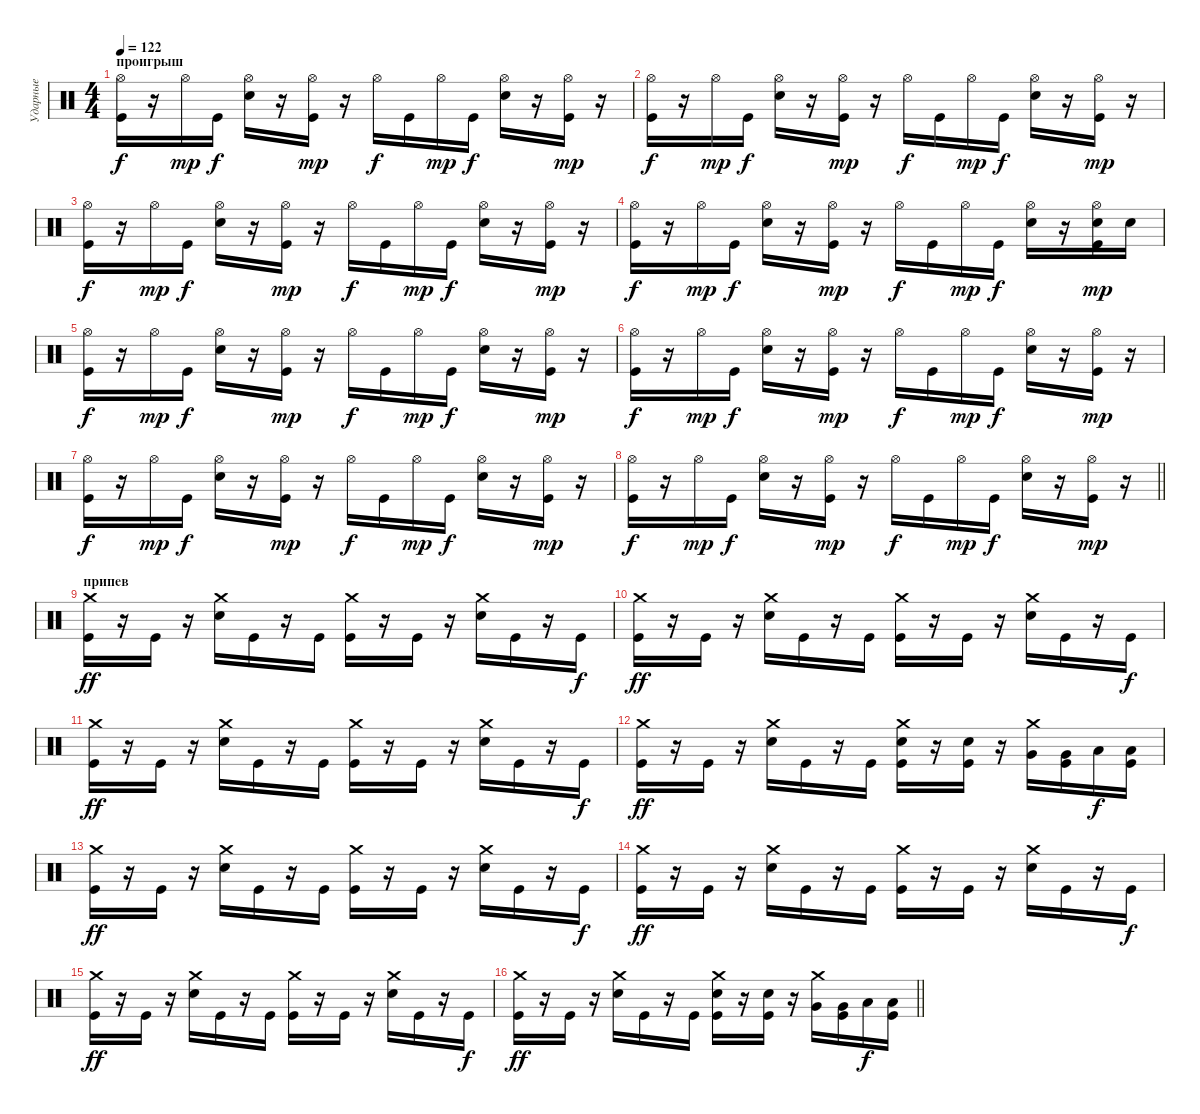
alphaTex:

\track ("Ударные" "Ударные") {instrument percussion}
\staff {score}
\articulation defaults
\ts (4 4)
\section ("" "проигрыш")
\tempo 122
\clef neutral
\ks c
("Hi-Hat (open)" "Kick (hit)").16{dy f} r.16 "Hi-Hat (open)".16{dy mp} "Kick (hit)".16{dy f} ("Hi-Hat (open)" "Electric Snare (hit)").16 r.16 ("Hi-Hat (open)" "Kick (hit)").16{dy mp} r.16 "Hi-Hat (open)".16{dy f} "Kick (hit)".16 "Hi-Hat (open)".16{dy mp} "Kick (hit)".16{dy f} ("Hi-Hat (open)" "Electric Snare (hit)").16 r.16 ("Hi-Hat (open)" "Kick (hit)").16{dy mp} r.16 |
("Hi-Hat (open)" "Kick (hit)").16{dy f} r.16 "Hi-Hat (open)".16{dy mp} "Kick (hit)".16{dy f} ("Hi-Hat (open)" "Electric Snare (hit)").16 r.16 ("Hi-Hat (open)" "Kick (hit)").16{dy mp} r.16 "Hi-Hat (open)".16{dy f} "Kick (hit)".16 "Hi-Hat (open)".16{dy mp} "Kick (hit)".16{dy f} ("Hi-Hat (open)" "Electric Snare (hit)").16 r.16 ("Hi-Hat (open)" "Kick (hit)").16{dy mp} r.16 |
("Hi-Hat (open)" "Kick (hit)").16{dy f} r.16 "Hi-Hat (open)".16{dy mp} "Kick (hit)".16{dy f} ("Hi-Hat (open)" "Electric Snare (hit)").16 r.16 ("Hi-Hat (open)" "Kick (hit)").16{dy mp} r.16 "Hi-Hat (open)".16{dy f} "Kick (hit)".16 "Hi-Hat (open)".16{dy mp} "Kick (hit)".16{dy f} ("Hi-Hat (open)" "Electric Snare (hit)").16 r.16 ("Hi-Hat (open)" "Kick (hit)").16{dy mp} r.16 |
("Hi-Hat (open)" "Kick (hit)").16{dy f} r.16 "Hi-Hat (open)".16{dy mp} "Kick (hit)".16{dy f} ("Hi-Hat (open)" "Electric Snare (hit)").16 r.16 ("Hi-Hat (open)" "Kick (hit)").16{dy mp} r.16 "Hi-Hat (open)".16{dy f} "Kick (hit)".16 "Hi-Hat (open)".16{dy mp} "Kick (hit)".16{dy f} ("Hi-Hat (open)" "Electric Snare (hit)").16 r.16 ("Hi-Hat (open)" "Electric Snare (hit)" "Kick (hit)").16{dy mp} "Electric Snare (hit)".16 |
("Hi-Hat (open)" "Kick (hit)").16{dy f} r.16 "Hi-Hat (open)".16{dy mp} "Kick (hit)".16{dy f} ("Hi-Hat (open)" "Electric Snare (hit)").16 r.16 ("Hi-Hat (open)" "Kick (hit)").16{dy mp} r.16 "Hi-Hat (open)".16{dy f} "Kick (hit)".16 "Hi-Hat (open)".16{dy mp} "Kick (hit)".16{dy f} ("Hi-Hat (open)" "Electric Snare (hit)").16 r.16 ("Hi-Hat (open)" "Kick (hit)").16{dy mp} r.16 |
("Hi-Hat (open)" "Kick (hit)").16{dy f} r.16 "Hi-Hat (open)".16{dy mp} "Kick (hit)".16{dy f} ("Hi-Hat (open)" "Electric Snare (hit)").16 r.16 ("Hi-Hat (open)" "Kick (hit)").16{dy mp} r.16 "Hi-Hat (open)".16{dy f} "Kick (hit)".16 "Hi-Hat (open)".16{dy mp} "Kick (hit)".16{dy f} ("Hi-Hat (open)" "Electric Snare (hit)").16 r.16 ("Hi-Hat (open)" "Kick (hit)").16{dy mp} r.16 |
("Hi-Hat (open)" "Kick (hit)").16{dy f} r.16 "Hi-Hat (open)".16{dy mp} "Kick (hit)".16{dy f} ("Hi-Hat (open)" "Electric Snare (hit)").16 r.16 ("Hi-Hat (open)" "Kick (hit)").16{dy mp} r.16 "Hi-Hat (open)".16{dy f} "Kick (hit)".16 "Hi-Hat (open)".16{dy mp} "Kick (hit)".16{dy f} ("Hi-Hat (open)" "Electric Snare (hit)").16 r.16 ("Hi-Hat (open)" "Kick (hit)").16{dy mp} r.16 |
\barLineRight lightlight
("Hi-Hat (open)" "Kick (hit)").16{dy f} r.16 "Hi-Hat (open)".16{dy mp} "Kick (hit)".16{dy f} ("Hi-Hat (open)" "Electric Snare (hit)").16 r.16 ("Hi-Hat (open)" "Kick (hit)").16{dy mp} r.16 "Hi-Hat (open)".16{dy f} "Kick (hit)".16 "Hi-Hat (open)".16{dy mp} "Kick (hit)".16{dy f} ("Hi-Hat (open)" "Electric Snare (hit)").16 r.16 ("Hi-Hat (open)" "Kick (hit)").16{dy mp} r.16 |
\section ("" "припев")
("Crash medium (hit)" "Kick (hit)").16{dy ff} r.16 "Kick (hit)".16 r.16 ("Crash medium (hit)" "Electric Snare (hit)").16 "Kick (hit)".16 r.16 "Kick (hit)".16 ("Crash medium (hit)" "Kick (hit)").16 r.16 "Kick (hit)".16 r.16 ("Crash medium (hit)" "Electric Snare (hit)").16 "Kick (hit)".16 r.16 "Kick (hit)".16{dy f} |
("Crash medium (hit)" "Kick (hit)").16{dy ff} r.16 "Kick (hit)".16 r.16 ("Crash medium (hit)" "Electric Snare (hit)").16 "Kick (hit)".16 r.16 "Kick (hit)".16 ("Crash medium (hit)" "Kick (hit)").16 r.16 "Kick (hit)".16 r.16 ("Crash medium (hit)" "Electric Snare (hit)").16 "Kick (hit)".16 r.16 "Kick (hit)".16{dy f} |
("Crash medium (hit)" "Kick (hit)").16{dy ff} r.16 "Kick (hit)".16 r.16 ("Crash medium (hit)" "Electric Snare (hit)").16 "Kick (hit)".16 r.16 "Kick (hit)".16 ("Crash medium (hit)" "Kick (hit)").16 r.16 "Kick (hit)".16 r.16 ("Crash medium (hit)" "Electric Snare (hit)").16 "Kick (hit)".16 r.16 "Kick (hit)".16{dy f} |
("Crash medium (hit)" "Kick (hit)").16{dy ff} r.16 "Kick (hit)".16 r.16 ("Crash medium (hit)" "Electric Snare (hit)").16 "Kick (hit)".16 r.16 "Kick (hit)".16 ("Crash medium (hit)" "Electric Snare (hit)" "Kick (hit)").16 r.16 ("Electric Snare (hit)" "Kick (hit)").16 r.16 ("Crash medium (hit)" "Very Low Tom (hit)").16 ("Very Low Tom (hit)" "Kick (hit)").16 "Low Floor Tom (hit)".16{dy f} ("Low Floor Tom (hit)" "Kick (hit)").16 |
("Crash medium (hit)" "Kick (hit)").16{dy ff} r.16 "Kick (hit)".16 r.16 ("Crash medium (hit)" "Electric Snare (hit)").16 "Kick (hit)".16 r.16 "Kick (hit)".16 ("Crash medium (hit)" "Kick (hit)").16 r.16 "Kick (hit)".16 r.16 ("Crash medium (hit)" "Electric Snare (hit)").16 "Kick (hit)".16 r.16 "Kick (hit)".16{dy f} |
("Crash medium (hit)" "Kick (hit)").16{dy ff} r.16 "Kick (hit)".16 r.16 ("Crash medium (hit)" "Electric Snare (hit)").16 "Kick (hit)".16 r.16 "Kick (hit)".16 ("Crash medium (hit)" "Kick (hit)").16 r.16 "Kick (hit)".16 r.16 ("Crash medium (hit)" "Electric Snare (hit)").16 "Kick (hit)".16 r.16 "Kick (hit)".16{dy f} |
("Crash medium (hit)" "Kick (hit)").16{dy ff} r.16 "Kick (hit)".16 r.16 ("Crash medium (hit)" "Electric Snare (hit)").16 "Kick (hit)".16 r.16 "Kick (hit)".16 ("Crash medium (hit)" "Kick (hit)").16 r.16 "Kick (hit)".16 r.16 ("Crash medium (hit)" "Electric Snare (hit)").16 "Kick (hit)".16 r.16 "Kick (hit)".16{dy f} |
\barLineRight lightlight
("Crash medium (hit)" "Kick (hit)").16{dy ff} r.16 "Kick (hit)".16 r.16 ("Crash medium (hit)" "Electric Snare (hit)").16 "Kick (hit)".16 r.16 "Kick (hit)".16 ("Crash medium (hit)" "Electric Snare (hit)" "Kick (hit)").16 r.16 ("Electric Snare (hit)" "Kick (hit)").16 r.16 ("Crash medium (hit)" "Very Low Tom (hit)").16 ("Very Low Tom (hit)" "Kick (hit)").16 "Low Floor Tom (hit)".16{dy f} ("Low Floor Tom (hit)" "Kick (hit)").16
